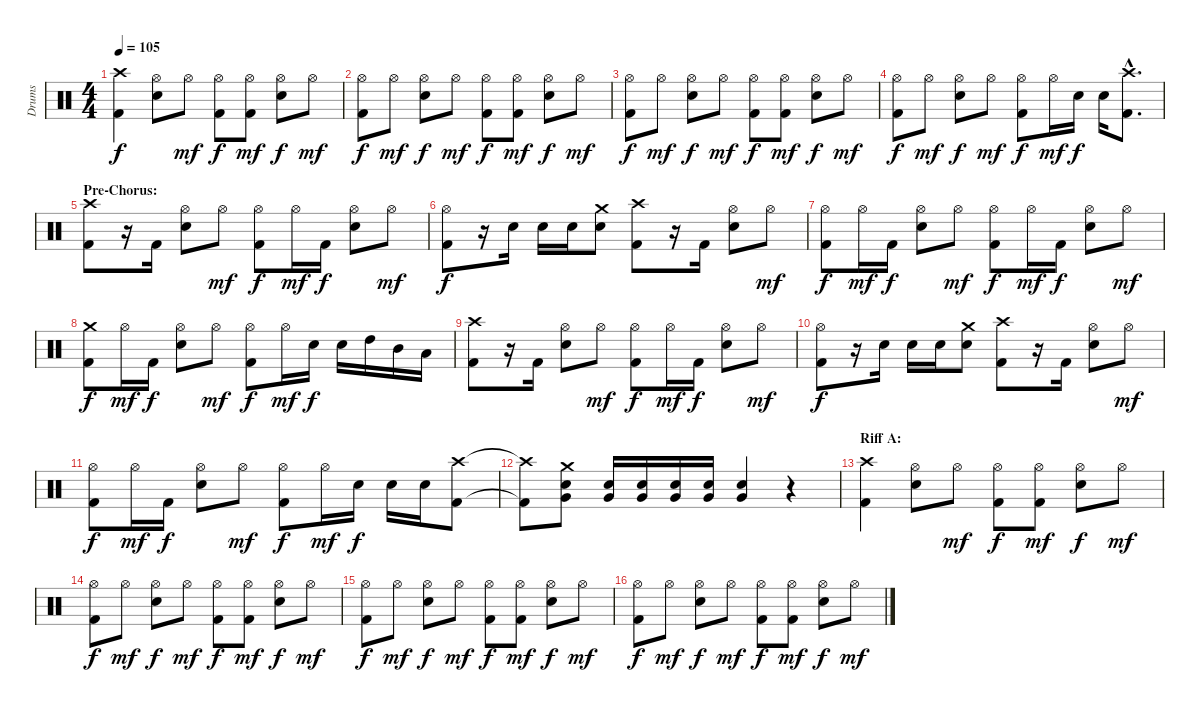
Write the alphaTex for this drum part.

\track ("Drums" "Drums") {instrument percussion}
\staff {score}
\articulation defaults
\ts (4 4)
\tempo 105
\clef neutral
\ks c
("Crash high (hit)" "Kick (hit) 2").4{dy f} ("Hi-Hat (open)" "Electric Snare (hit)").8 "Hi-Hat (open)".8{dy mf} ("Hi-Hat (open)" "Kick (hit) 2").8{dy f} ("Hi-Hat (open)" "Kick (hit) 2").8{dy mf} ("Hi-Hat (open)" "Electric Snare (hit)").8{dy f} "Hi-Hat (open)".8{dy mf} |
("Hi-Hat (open)" "Kick (hit) 2").8{dy f} "Hi-Hat (open)".8{dy mf} ("Hi-Hat (open)" "Electric Snare (hit)").8{dy f} "Hi-Hat (open)".8{dy mf} ("Hi-Hat (open)" "Kick (hit) 2").8{dy f} ("Hi-Hat (open)" "Kick (hit) 2").8{dy mf} ("Hi-Hat (open)" "Electric Snare (hit)").8{dy f} "Hi-Hat (open)".8{dy mf} |
("Hi-Hat (open)" "Kick (hit) 2").8{dy f} "Hi-Hat (open)".8{dy mf} ("Hi-Hat (open)" "Electric Snare (hit)").8{dy f} "Hi-Hat (open)".8{dy mf} ("Hi-Hat (open)" "Kick (hit) 2").8{dy f} ("Hi-Hat (open)" "Kick (hit) 2").8{dy mf} ("Hi-Hat (open)" "Electric Snare (hit)").8{dy f} "Hi-Hat (open)".8{dy mf} |
("Hi-Hat (open)" "Kick (hit) 2").8{dy f} "Hi-Hat (open)".8{dy mf} ("Hi-Hat (open)" "Electric Snare (hit)").8{dy f} "Hi-Hat (open)".8{dy mf} ("Hi-Hat (open)" "Kick (hit) 2").8{dy f} "Hi-Hat (open)".16{dy mf} "Electric Snare (hit)".16{dy f} "Electric Snare (hit)".16 ("Crash high (hit)"{hac} "Kick (hit) 2"{hac}).8{d} |
\section ("" "Pre-Chorus:")
("Crash high (hit)" "Kick (hit) 2").8 r.16 "Kick (hit) 2".16 ("Hi-Hat (open)" "Electric Snare (hit)").8 "Hi-Hat (open)".8{dy mf} ("Hi-Hat (open)" "Kick (hit) 2").8{dy f} "Hi-Hat (open)".16{dy mf} "Kick (hit) 2".16{dy f} ("Hi-Hat (open)" "Electric Snare (hit)").8 "Hi-Hat (open)".8{dy mf} |
("Hi-Hat (open)" "Kick (hit) 2").8{dy f} r.16 "Electric Snare (hit)".16 "Electric Snare (hit)".16 "Electric Snare (hit)".16 ("Crash medium (hit)" "Electric Snare (hit)").8 ("Crash high (hit)" "Kick (hit) 2").8 r.16 "Kick (hit) 2".16 ("Hi-Hat (open)" "Electric Snare (hit)").8 "Hi-Hat (open)".8{dy mf} |
("Hi-Hat (open)" "Kick (hit) 2").8{dy f} "Hi-Hat (open)".16{dy mf} "Kick (hit) 2".16{dy f} ("Hi-Hat (open)" "Electric Snare (hit)").8 "Hi-Hat (open)".8{dy mf} ("Hi-Hat (open)" "Kick (hit) 2").8{dy f} "Hi-Hat (open)".16{dy mf} "Kick (hit) 2".16{dy f} ("Hi-Hat (open)" "Electric Snare (hit)").8 "Hi-Hat (open)".8{dy mf} |
("Crash medium (hit)" "Kick (hit) 2").8{dy f} "Hi-Hat (open)".16{dy mf} "Kick (hit) 2".16{dy f} ("Hi-Hat (open)" "Electric Snare (hit)").8 "Hi-Hat (open)".8{dy mf} ("Hi-Hat (open)" "Kick (hit) 2").8{dy f} "Hi-Hat (open)".16{dy mf} "Electric Snare (hit)".16{dy f} "Electric Snare (hit)".16 "High Tom (hit)".16 "Mid Tom (hit)".16 "Low Tom (hit)".16 |
("Crash high (hit)" "Kick (hit) 2").8 r.16 "Kick (hit) 2".16 ("Hi-Hat (open)" "Electric Snare (hit)").8 "Hi-Hat (open)".8{dy mf} ("Hi-Hat (open)" "Kick (hit) 2").8{dy f} "Hi-Hat (open)".16{dy mf} "Kick (hit) 2".16{dy f} ("Hi-Hat (open)" "Electric Snare (hit)").8 "Hi-Hat (open)".8{dy mf} |
("Hi-Hat (open)" "Kick (hit) 2").8{dy f} r.16 "Electric Snare (hit)".16 "Electric Snare (hit)".16 "Electric Snare (hit)".16 ("Crash medium (hit)" "Electric Snare (hit)").8 ("Crash high (hit)" "Kick (hit) 2").8 r.16 "Kick (hit) 2".16 ("Hi-Hat (open)" "Electric Snare (hit)").8 "Hi-Hat (open)".8{dy mf} |
("Hi-Hat (open)" "Kick (hit) 2").8{dy f} "Hi-Hat (open)".16{dy mf} "Kick (hit) 2".16{dy f} ("Hi-Hat (open)" "Electric Snare (hit)").8 "Hi-Hat (open)".8{dy mf} ("Hi-Hat (open)" "Kick (hit) 2").8{dy f} "Hi-Hat (open)".16{dy mf} "Electric Snare (hit)".16{dy f} "Electric Snare (hit)".16 "Electric Snare (hit)".16 ("Crash high (hit)" "Kick (hit) 2").8 |
("Crash high (hit)"{t} "Kick (hit) 2"{t}).8 ("Crash medium (hit)" "Electric Snare (hit)" "Very Low Tom (hit)").8 ("Electric Snare (hit)" "Very Low Tom (hit)").16 ("Electric Snare (hit)" "Very Low Tom (hit)").16 ("Electric Snare (hit)" "Very Low Tom (hit)").16 ("Electric Snare (hit)" "Very Low Tom (hit)").16 ("Electric Snare (hit)" "Very Low Tom (hit)").4 r.4 |
\section ("" "Riff A:")
("Crash high (hit)" "Kick (hit) 2").4 ("Hi-Hat (open)" "Electric Snare (hit)").8 "Hi-Hat (open)".8{dy mf} ("Hi-Hat (open)" "Kick (hit) 2").8{dy f} ("Hi-Hat (open)" "Kick (hit) 2").8{dy mf} ("Hi-Hat (open)" "Electric Snare (hit)").8{dy f} "Hi-Hat (open)".8{dy mf} |
("Hi-Hat (open)" "Kick (hit) 2").8{dy f} "Hi-Hat (open)".8{dy mf} ("Hi-Hat (open)" "Electric Snare (hit)").8{dy f} "Hi-Hat (open)".8{dy mf} ("Hi-Hat (open)" "Kick (hit) 2").8{dy f} ("Hi-Hat (open)" "Kick (hit) 2").8{dy mf} ("Hi-Hat (open)" "Electric Snare (hit)").8{dy f} "Hi-Hat (open)".8{dy mf} |
("Hi-Hat (open)" "Kick (hit) 2").8{dy f} "Hi-Hat (open)".8{dy mf} ("Hi-Hat (open)" "Electric Snare (hit)").8{dy f} "Hi-Hat (open)".8{dy mf} ("Hi-Hat (open)" "Kick (hit) 2").8{dy f} ("Hi-Hat (open)" "Kick (hit) 2").8{dy mf} ("Hi-Hat (open)" "Electric Snare (hit)").8{dy f} "Hi-Hat (open)".8{dy mf} |
("Hi-Hat (open)" "Kick (hit) 2").8{dy f} "Hi-Hat (open)".8{dy mf} ("Hi-Hat (open)" "Electric Snare (hit)").8{dy f} "Hi-Hat (open)".8{dy mf} ("Hi-Hat (open)" "Kick (hit) 2").8{dy f} ("Hi-Hat (open)" "Kick (hit) 2").8{dy mf} ("Hi-Hat (open)" "Electric Snare (hit)").8{dy f} "Hi-Hat (open)".8{dy mf}
